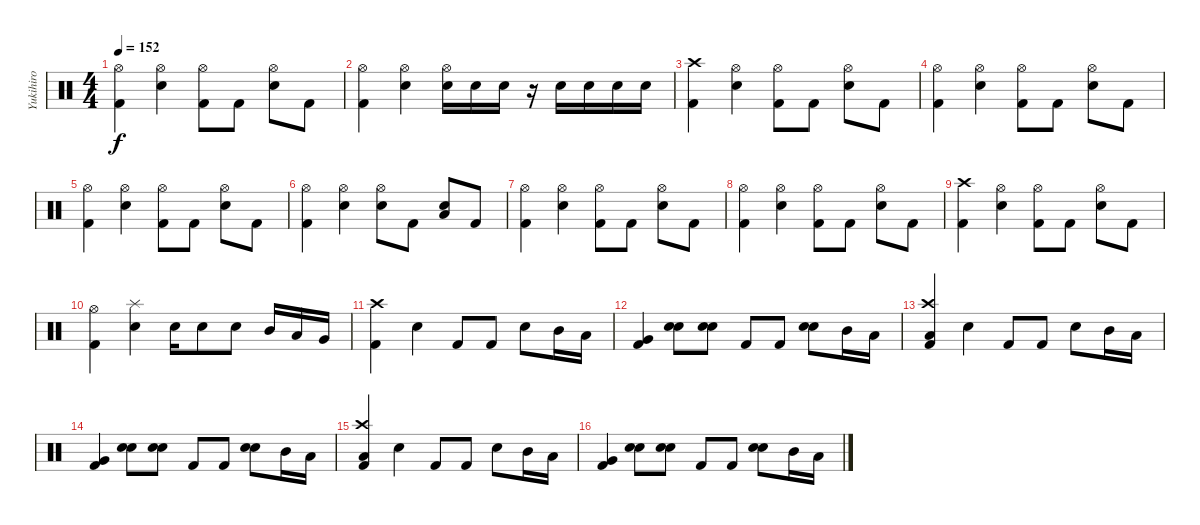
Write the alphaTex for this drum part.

\track ("Yukihiro" "Yukihiro") {instrument percussion}
\staff {score}
\articulation defaults
\ts (4 4)
\tempo 152
\clef neutral
\ks c
("Hi-Hat (open)" "Kick (hit) 2").4{dy f} ("Hi-Hat (open)" "Electric Snare (hit)").4 ("Hi-Hat (open)" "Kick (hit) 2").8 "Kick (hit) 2".8 ("Hi-Hat (open)" "Electric Snare (hit)").8 "Kick (hit) 2".8 |
("Hi-Hat (open)" "Kick (hit) 2").4 ("Hi-Hat (open)" "Electric Snare (hit)").4 ("Hi-Hat (open)" "Electric Snare (hit)").16 "Electric Snare (hit)".16 "Electric Snare (hit)".16 r.16 "Electric Snare (hit)".16 "Electric Snare (hit)".16 "Electric Snare (hit)".16 "Electric Snare (hit)".16 |
("Crash high (hit)" "Kick (hit) 2").4 ("Hi-Hat (open)" "Electric Snare (hit)").4 ("Hi-Hat (open)" "Kick (hit) 2").8 "Kick (hit) 2".8 ("Hi-Hat (open)" "Electric Snare (hit)").8 "Kick (hit) 2".8 |
("Hi-Hat (open)" "Kick (hit) 2").4 ("Hi-Hat (open)" "Electric Snare (hit)").4 ("Hi-Hat (open)" "Kick (hit) 2").8 "Kick (hit) 2".8 ("Hi-Hat (open)" "Electric Snare (hit)").8 "Kick (hit) 2".8 |
("Hi-Hat (open)" "Kick (hit) 2").4 ("Hi-Hat (open)" "Electric Snare (hit)").4 ("Hi-Hat (open)" "Kick (hit) 2").8 "Kick (hit) 2".8 ("Hi-Hat (open)" "Electric Snare (hit)").8 "Kick (hit) 2".8 |
("Hi-Hat (open)" "Kick (hit) 2").4 ("Hi-Hat (open)" "Electric Snare (hit)").4 ("Hi-Hat (open)" "Electric Snare (hit)").8 "Kick (hit) 2".8 ("Low Tom (hit)" "Electric Snare (hit)").8 "Kick (hit) 2".8 |
("Hi-Hat (open)" "Kick (hit) 2").4 ("Hi-Hat (open)" "Electric Snare (hit)").4 ("Hi-Hat (open)" "Kick (hit) 2").8 "Kick (hit) 2".8 ("Hi-Hat (open)" "Electric Snare (hit)").8 "Kick (hit) 2".8 |
("Hi-Hat (open)" "Kick (hit) 2").4 ("Hi-Hat (open)" "Electric Snare (hit)").4 ("Hi-Hat (open)" "Kick (hit) 2").8 "Kick (hit) 2".8 ("Hi-Hat (open)" "Electric Snare (hit)").8 "Kick (hit) 2".8 |
("Crash high (hit)" "Kick (hit) 2").4 ("Hi-Hat (open)" "Electric Snare (hit)").4 ("Hi-Hat (open)" "Kick (hit) 2").8 "Kick (hit) 2".8 ("Hi-Hat (open)" "Electric Snare (hit)").8 "Kick (hit) 2".8 |
("Hi-Hat (open)" "Kick (hit) 2").4 ("Splash (hit)" "Electric Snare (hit)").4 "Electric Snare (hit)".16 "Electric Snare (hit)".8 "Electric Snare (hit)".8 "Mid Tom (hit)".16 "Low Tom (hit)".16 "Very Low Tom (hit)".16 |
("Crash high (hit)" "Kick (hit) 2").4 "Electric Snare (hit)".4 "Kick (hit) 2".8 "Kick (hit) 2".8 "Electric Snare (hit)".8 "Mid Tom (hit)".16 "Low Tom (hit)".16 |
("Very Low Tom (hit)" "Kick (hit) 2").4 ("Hand Clap (hit)" "Electric Snare (hit)").8 ("Hand Clap (hit)" "Electric Snare (hit)").8 "Kick (hit) 2".8 "Kick (hit) 2".8 ("Hand Clap (hit)" "Electric Snare (hit)").8 "Mid Tom (hit)".16 "Low Tom (hit)".16 |
("Crash high (hit)" "Low Floor Tom (hit)" "Kick (hit) 2").4 "Electric Snare (hit)".4 "Kick (hit) 2".8 "Kick (hit) 2".8 "Electric Snare (hit)".8 "Mid Tom (hit)".16 "Low Tom (hit)".16 |
("Very Low Tom (hit)" "Kick (hit) 2").4 ("Electric Snare (hit)" "Hand Clap (hit)").8 ("Electric Snare (hit)" "Hand Clap (hit)").8 "Kick (hit) 2".8 "Kick (hit) 2".8 ("Electric Snare (hit)" "Hand Clap (hit)").8 "Mid Tom (hit)".16 "Low Tom (hit)".16 |
("Crash high (hit)" "Low Floor Tom (hit)" "Kick (hit) 2").4 "Electric Snare (hit)".4 "Kick (hit) 2".8 "Kick (hit) 2".8 "Electric Snare (hit)".8 "Mid Tom (hit)".16 "Low Tom (hit)".16 |
("Very Low Tom (hit)" "Kick (hit) 2").4 ("Electric Snare (hit)" "Hand Clap (hit)").8 ("Electric Snare (hit)" "Hand Clap (hit)").8 "Kick (hit) 2".8 "Kick (hit) 2".8 ("Electric Snare (hit)" "Hand Clap (hit)").8 "Mid Tom (hit)".16 "Low Tom (hit)".16
